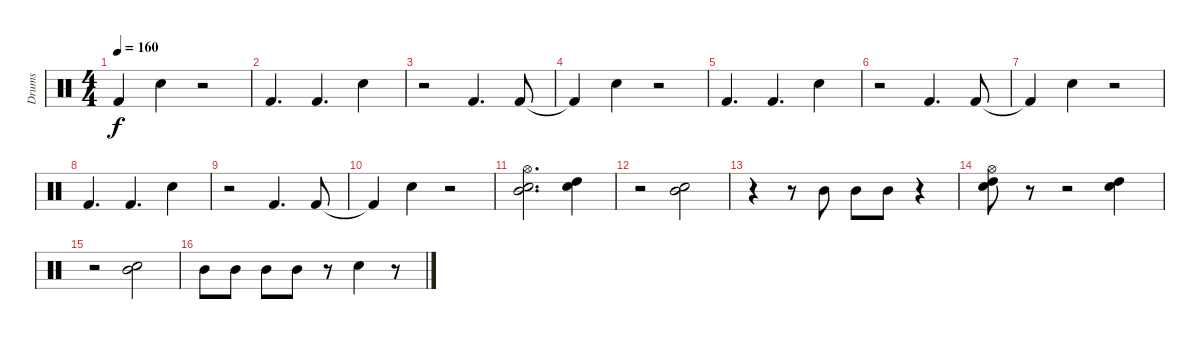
\track ("Drums" "Drums") {instrument percussion}
\staff {score}
\articulation defaults
\ts (4 4)
\tempo 160
\clef neutral
\ks c "Kick (hit) 2"{t}.4{dy f} "Snare (hit) 2".4
r.2 |
"Kick (hit) 2".4{d} "Kick (hit) 2".4{d} "Snare (hit) 2".4 |
r.2 "Kick (hit) 2".4{d} "Kick (hit) 2".8 |
"Kick (hit) 2"{t}.4 "Snare (hit) 2".4 r.2 |
"Kick (hit) 2".4{d} "Kick (hit) 2".4{d} "Snare (hit) 2".4 |
r.2 "Kick (hit) 2".4{d} "Kick (hit) 2".8 |
"Kick (hit) 2"{t}.4 "Snare (hit) 2".4 r.2 |
"Kick (hit) 2".4{d} "Kick (hit) 2".4{d} "Snare (hit) 2".4 |
r.2 "Kick (hit) 2".4{d} "Kick (hit) 2".8 |
"Kick (hit) 2"{t}.4 "Snare (hit) 2".4 r.2 |
("Mid Tom (hit)" "Snare (hit) 2" "Hi-Hat (open)").2{d} ("High Tom (hit)" "Snare (hit) 2").4 |
r.2 ("Mid Tom (hit)" "Snare (hit) 2").2 |
r.4 r.8 "Mid Tom (hit)".8 "Mid Tom (hit)".8 "Mid Tom (hit)".8 r.4 |
("High Tom (hit)" "Snare (hit) 2" "Hi-Hat (open)").8 r.8 r.2 ("High Tom (hit)" "Snare (hit) 2").4 |
r.2 ("Mid Tom (hit)" "Snare (hit) 2").2 |
"Mid Tom (hit)".8 "Mid Tom (hit)".8 "Mid Tom (hit)".8 "Mid Tom (hit)".8 r.8 "Snare (hit) 2".4 r.8
